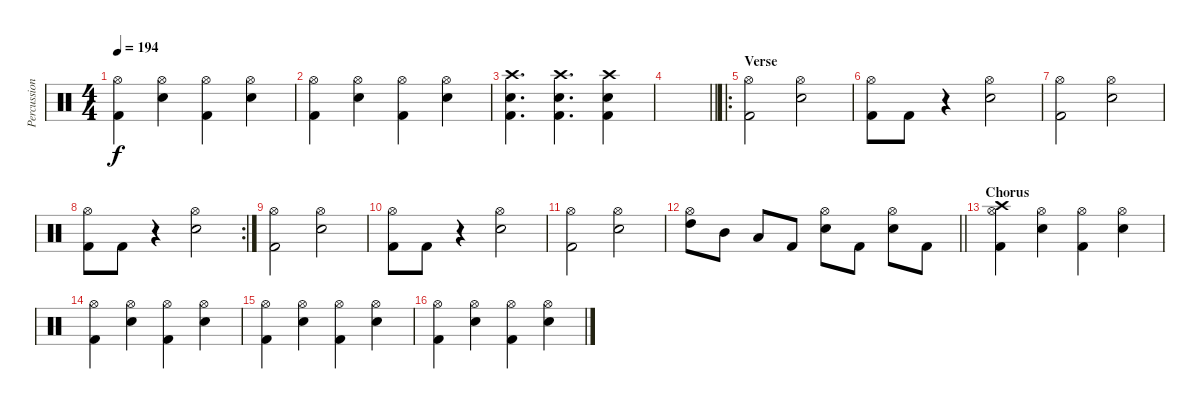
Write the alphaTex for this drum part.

\track ("Percussion" "Percussion") {instrument percussion}
\staff {score}
\articulation defaults
\ts (4 4)
\tempo 194
\clef neutral
\ks c
("Hi-Hat (open)" "Kick (hit) 2").4{dy f} ("Hi-Hat (open)" "Electric Snare (hit)").4 ("Hi-Hat (open)" "Kick (hit) 2").4 ("Hi-Hat (open)" "Electric Snare (hit)").4 |
("Hi-Hat (open)" "Kick (hit) 2").4 ("Hi-Hat (open)" "Electric Snare (hit)").4 ("Hi-Hat (open)" "Kick (hit) 2").4 ("Hi-Hat (open)" "Electric Snare (hit)").4 |
("Crash high (hit)" "Electric Snare (hit)" "Kick (hit) 2").4{d} ("Crash high (hit)" "Electric Snare (hit)" "Kick (hit) 2").4{d} ("Crash high (hit)" "Electric Snare (hit)" "Kick (hit) 2").4 |
\barLineRight lightlight
|
\ro
\section ("" "Verse")
("Hi-Hat (open)" "Kick (hit) 2").2 ("Hi-Hat (open)" "Electric Snare (hit)").2 |
("Hi-Hat (open)" "Kick (hit) 2").8 "Kick (hit) 2".8 r.4 ("Hi-Hat (open)" "Electric Snare (hit)").2 |
("Hi-Hat (open)" "Kick (hit) 2").2 ("Hi-Hat (open)" "Electric Snare (hit)").2 |
\rc 2
("Hi-Hat (open)" "Kick (hit) 2").8 "Kick (hit) 2".8 r.4 ("Hi-Hat (open)" "Electric Snare (hit)").2 |
("Hi-Hat (open)" "Kick (hit) 2").2 ("Hi-Hat (open)" "Electric Snare (hit)").2 |
("Hi-Hat (open)" "Kick (hit) 2").8 "Kick (hit) 2".8 r.4 ("Hi-Hat (open)" "Electric Snare (hit)").2 |
("Hi-Hat (open)" "Kick (hit) 2").2 ("Hi-Hat (open)" "Electric Snare (hit)").2 |
\barLineRight lightlight
("Hi-Hat (open)" "High Tom (hit)").8 "Mid Tom (hit)".8 "Low Tom (hit)".8 "Kick (hit) 2".8 ("Hi-Hat (open)" "Electric Snare (hit)").8 "Kick (hit) 2".8 ("Hi-Hat (open)" "Electric Snare (hit)").8 "Kick (hit) 2".8 |
\section ("" "Chorus")
("Crash high (hit)" "Hi-Hat (open)" "Kick (hit) 2").4 ("Hi-Hat (open)" "Electric Snare (hit)").4 ("Hi-Hat (open)" "Kick (hit) 2").4 ("Hi-Hat (open)" "Electric Snare (hit)").4 |
("Hi-Hat (open)" "Kick (hit) 2").4 ("Hi-Hat (open)" "Electric Snare (hit)").4 ("Hi-Hat (open)" "Kick (hit) 2").4 ("Hi-Hat (open)" "Electric Snare (hit)").4 |
("Hi-Hat (open)" "Kick (hit) 2").4 ("Hi-Hat (open)" "Electric Snare (hit)").4 ("Hi-Hat (open)" "Kick (hit) 2").4 ("Hi-Hat (open)" "Electric Snare (hit)").4 |
("Hi-Hat (open)" "Kick (hit) 2").4 ("Hi-Hat (open)" "Electric Snare (hit)").4 ("Hi-Hat (open)" "Kick (hit) 2").4 ("Hi-Hat (open)" "Electric Snare (hit)").4
